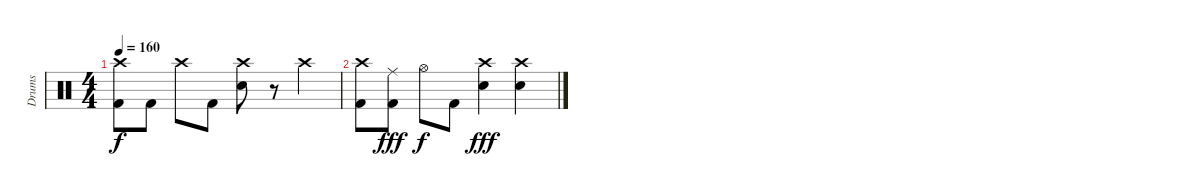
\track ("Drums" "Drums") {instrument percussion}
\staff {score}
\articulation defaults
\ts (4 4)
\tempo 160
\clef neutral
\ks c
("Crash high (hit)" "Kick (hit) 2").8{dy f} "Kick (hit) 2".8 "Crash high (hit)".8 "Kick (hit) 2".8 ("Crash high (hit)" "Electric Snare (hit)").8 r.8 "Crash high (hit)".4 |
("Crash high (hit)" "Kick (hit) 2").8 ("Ride (middle)" "Kick (hit) 2").8{dy fff} "Hi-Hat (open)".8{dy f} "Kick (hit) 2".8 ("Crash high (hit)" "Electric Snare (hit)").4{dy fff} ("Crash high (hit)" "Electric Snare (hit)").4
